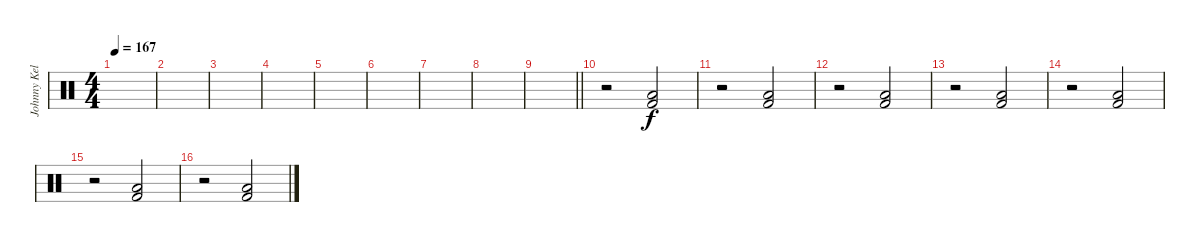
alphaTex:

\track ("Johnny Kelly" "Johnny Kel") {instrument percussion}
\staff {score}
\articulation defaults
\ts (4 4)
\tempo 167
\clef neutral
\ks c
|
|
|
|
|
|
|
|
\barLineRight lightlight
|
\section ("" "")
r.2 ("Low Floor Tom (hit)" "Kick (hit) 2").2{dy f} |
r.2 ("Low Floor Tom (hit)" "Kick (hit) 2").2 |
r.2 ("Low Floor Tom (hit)" "Kick (hit) 2").2 |
r.2 ("Low Floor Tom (hit)" "Kick (hit) 2").2 |
r.2 ("Low Floor Tom (hit)" "Kick (hit) 2").2 |
r.2 ("Low Floor Tom (hit)" "Kick (hit) 2").2 |
r.2 ("Low Floor Tom (hit)" "Kick (hit) 2").2
